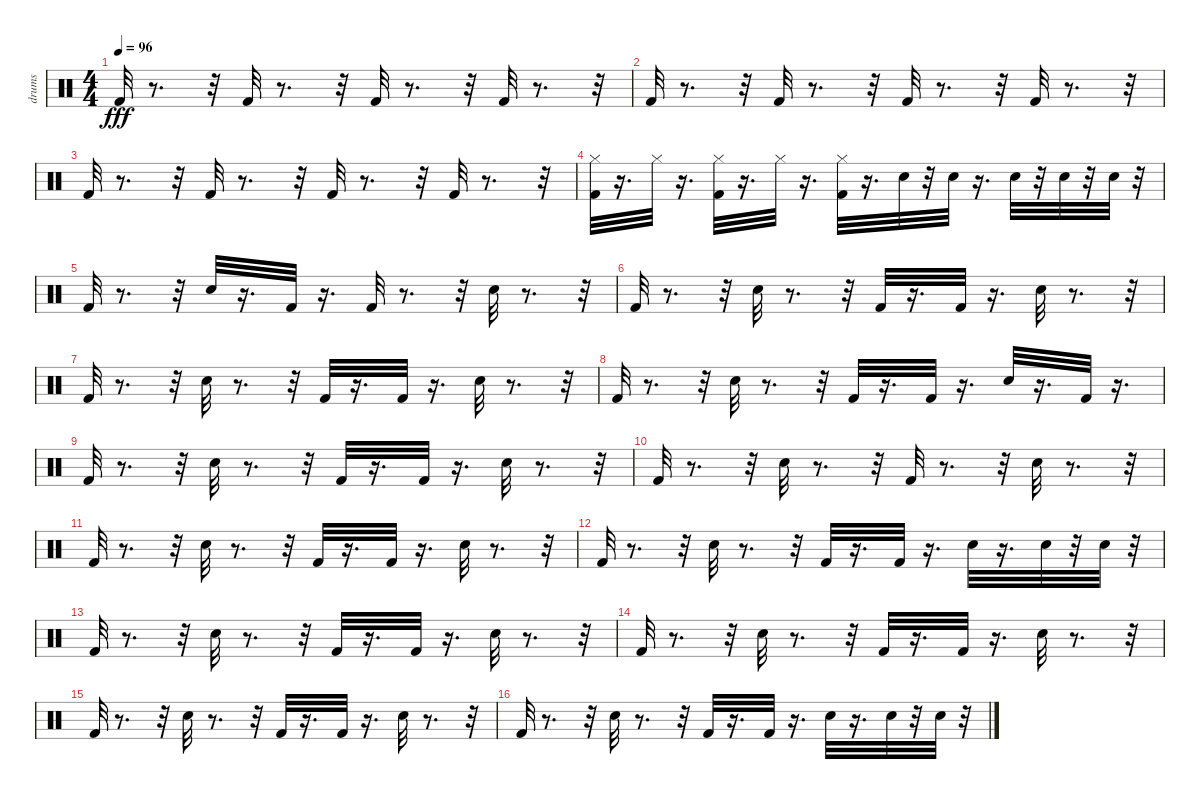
\track ("drums" "drums") {instrument percussion}
\staff {score}
\articulation defaults
\ts (4 4)
\tempo 96
\clef neutral
\ks c "Kick (hit) 2".32{dy fff}
r.8{d} r.32 "Kick (hit) 2".32 r.8{d} r.32 "Kick (hit) 2".32 r.8{d} r.32 "Kick (hit) 2".32 r.8{d} r.32 |
"Kick (hit) 2".32 r.8{d} r.32 "Kick (hit) 2".32 r.8{d} r.32 "Kick (hit) 2".32 r.8{d} r.32 "Kick (hit) 2".32 r.8{d} r.32 |
"Kick (hit) 2".32 r.8{d} r.32 "Kick (hit) 2".32 r.8{d} r.32 "Kick (hit) 2".32 r.8{d} r.32 "Kick (hit) 2".32 r.8{d} r.32 |
("Kick (hit) 2" "Hi-Hat (closed)").32 r.16{d} "Hi-Hat (closed)".32 r.16{d} ("Kick (hit) 2" "Hi-Hat (closed)").32 r.16{d} "Hi-Hat (closed)".32 r.16{d} ("Hi-Hat (closed)" "Kick (hit) 2").32 r.16{d} "Electric Snare (hit)".32 r.32 "Electric Snare (hit)".32 r.16{d} "Electric Snare (hit)".32 r.32 "Electric Snare (hit)".32 r.32 "Electric Snare (hit)".32 r.32 |
"Kick (hit) 2".32 r.8{d} r.32 "Electric Snare (hit)".32 r.16{d} "Kick (hit) 2".32 r.16{d} "Kick (hit) 2".32 r.8{d} r.32 "Electric Snare (hit)".32 r.8{d} r.32 |
"Kick (hit) 2".32 r.8{d} r.32 "Electric Snare (hit)".32 r.8{d} r.32 "Kick (hit) 2".32 r.16{d} "Kick (hit) 2".32 r.16{d} "Electric Snare (hit)".32 r.8{d} r.32 |
"Kick (hit) 2".32 r.8{d} r.32 "Electric Snare (hit)".32 r.8{d} r.32 "Kick (hit) 2".32 r.16{d} "Kick (hit) 2".32 r.16{d} "Electric Snare (hit)".32 r.8{d} r.32 |
"Kick (hit) 2".32 r.8{d} r.32 "Electric Snare (hit)".32 r.8{d} r.32 "Kick (hit) 2".32 r.16{d} "Kick (hit) 2".32 r.16{d} "Electric Snare (hit)".32 r.16{d} "Kick (hit) 2".32 r.16{d} |
"Kick (hit) 2".32 r.8{d} r.32 "Electric Snare (hit)".32 r.8{d} r.32 "Kick (hit) 2".32 r.16{d} "Kick (hit) 2".32 r.16{d} "Electric Snare (hit)".32 r.8{d} r.32 |
"Kick (hit) 2".32 r.8{d} r.32 "Electric Snare (hit)".32 r.8{d} r.32 "Kick (hit) 2".32 r.8{d} r.32 "Electric Snare (hit)".32 r.8{d} r.32 |
"Kick (hit) 2".32 r.8{d} r.32 "Electric Snare (hit)".32 r.8{d} r.32 "Kick (hit) 2".32 r.16{d} "Kick (hit) 2".32 r.16{d} "Electric Snare (hit)".32 r.8{d} r.32 |
"Kick (hit) 2".32 r.8{d} r.32 "Electric Snare (hit)".32 r.8{d} r.32 "Kick (hit) 2".32 r.16{d} "Kick (hit) 2".32 r.16{d} "Electric Snare (hit)".32 r.16{d} "Electric Snare (hit)".32 r.32 "Electric Snare (hit)".32 r.32 |
"Kick (hit) 2".32 r.8{d} r.32 "Electric Snare (hit)".32 r.8{d} r.32 "Kick (hit) 2".32 r.16{d} "Kick (hit) 2".32 r.16{d} "Electric Snare (hit)".32 r.8{d} r.32 |
"Kick (hit) 2".32 r.8{d} r.32 "Electric Snare (hit)".32 r.8{d} r.32 "Kick (hit) 2".32 r.16{d} "Kick (hit) 2".32 r.16{d} "Electric Snare (hit)".32 r.8{d} r.32 |
"Kick (hit) 2".32 r.8{d} r.32 "Electric Snare (hit)".32 r.8{d} r.32 "Kick (hit) 2".32 r.16{d} "Kick (hit) 2".32 r.16{d} "Electric Snare (hit)".32 r.8{d} r.32 |
"Kick (hit) 2".32 r.8{d} r.32 "Electric Snare (hit)".32 r.8{d} r.32 "Kick (hit) 2".32 r.16{d} "Kick (hit) 2".32 r.16{d} "Electric Snare (hit)".32 r.16{d} "Electric Snare (hit)".32 r.32 "Electric Snare (hit)".32 r.32
